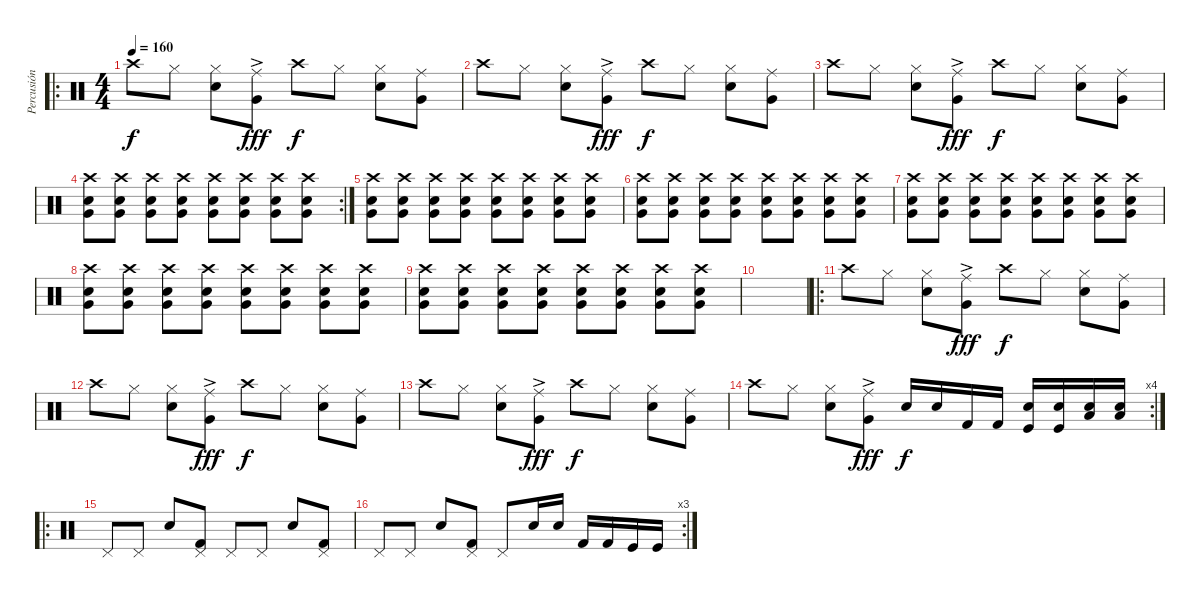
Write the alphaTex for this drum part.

\track ("Percusión" "Percusión") {instrument percussion}
\staff {score}
\articulation defaults
\ro
\ts (4 4)
\tempo 160
\clef neutral
\ks c "Crash high (hit)".8{dy f} "Hi-Hat (closed)".8
("Hi-Hat (closed)" "Snare (hit) 2").8 ("Ride (middle)" "Very Low Tom (hit)"{ac}).8{dy fff} "Crash high (hit)".8{dy f} "Hi-Hat (closed)".8 ("Hi-Hat (closed)" "Snare (hit) 2").8 ("Ride (middle)" "Very Low Tom (hit)").8 |
"Crash high (hit)".8 "Hi-Hat (closed)".8 ("Hi-Hat (closed)" "Snare (hit) 2").8 ("Ride (middle)" "Very Low Tom (hit)"{ac}).8{dy fff} "Crash high (hit)".8{dy f} "Hi-Hat (closed)".8 ("Hi-Hat (closed)" "Snare (hit) 2").8 ("Ride (middle)" "Very Low Tom (hit)").8 |
"Crash high (hit)".8 "Hi-Hat (closed)".8 ("Hi-Hat (closed)" "Snare (hit) 2").8 ("Ride (middle)" "Very Low Tom (hit)"{ac}).8{dy fff} "Crash high (hit)".8{dy f} "Hi-Hat (closed)".8 ("Hi-Hat (closed)" "Snare (hit) 2").8 ("Ride (middle)" "Very Low Tom (hit)").8 |
\rc 2
("Crash high (hit)" "Snare (hit) 2" "Very Low Tom (hit)").8 ("Crash high (hit)" "Snare (hit) 2" "Very Low Tom (hit)").8 ("Crash high (hit)" "Snare (hit) 2" "Very Low Tom (hit)").8 ("Crash high (hit)" "Snare (hit) 2" "Very Low Tom (hit)").8 ("Crash high (hit)" "Snare (hit) 2" "Very Low Tom (hit)").8 ("Crash high (hit)" "Snare (hit) 2" "Very Low Tom (hit)").8 ("Crash high (hit)" "Snare (hit) 2" "Very Low Tom (hit)").8 ("Crash high (hit)" "Snare (hit) 2" "Very Low Tom (hit)").8 |
("Crash high (hit)" "Snare (hit) 2" "Very Low Tom (hit)").8 ("Crash high (hit)" "Snare (hit) 2" "Very Low Tom (hit)").8 ("Crash high (hit)" "Snare (hit) 2" "Very Low Tom (hit)").8 ("Crash high (hit)" "Snare (hit) 2" "Very Low Tom (hit)").8 ("Crash high (hit)" "Snare (hit) 2" "Very Low Tom (hit)").8 ("Crash high (hit)" "Snare (hit) 2" "Very Low Tom (hit)").8 ("Crash high (hit)" "Snare (hit) 2" "Very Low Tom (hit)").8 ("Crash high (hit)" "Snare (hit) 2" "Very Low Tom (hit)").8 |
("Crash high (hit)" "Snare (hit) 2" "Very Low Tom (hit)").8 ("Crash high (hit)" "Snare (hit) 2" "Very Low Tom (hit)").8 ("Crash high (hit)" "Snare (hit) 2" "Very Low Tom (hit)").8 ("Crash high (hit)" "Snare (hit) 2" "Very Low Tom (hit)").8 ("Crash high (hit)" "Snare (hit) 2" "Very Low Tom (hit)").8 ("Crash high (hit)" "Snare (hit) 2" "Very Low Tom (hit)").8 ("Crash high (hit)" "Snare (hit) 2" "Very Low Tom (hit)").8 ("Crash high (hit)" "Snare (hit) 2" "Very Low Tom (hit)").8 |
("Crash high (hit)" "Snare (hit) 2" "Very Low Tom (hit)").8 ("Crash high (hit)" "Snare (hit) 2" "Very Low Tom (hit)").8 ("Crash high (hit)" "Snare (hit) 2" "Very Low Tom (hit)").8 ("Crash high (hit)" "Snare (hit) 2" "Very Low Tom (hit)").8 ("Crash high (hit)" "Snare (hit) 2" "Very Low Tom (hit)").8 ("Crash high (hit)" "Snare (hit) 2" "Very Low Tom (hit)").8 ("Crash high (hit)" "Snare (hit) 2" "Very Low Tom (hit)").8 ("Crash high (hit)" "Snare (hit) 2" "Very Low Tom (hit)").8 |
("Crash high (hit)" "Snare (hit) 2" "Very Low Tom (hit)").8 ("Crash high (hit)" "Snare (hit) 2" "Very Low Tom (hit)").8 ("Crash high (hit)" "Snare (hit) 2" "Very Low Tom (hit)").8 ("Crash high (hit)" "Snare (hit) 2" "Very Low Tom (hit)").8 ("Crash high (hit)" "Snare (hit) 2" "Very Low Tom (hit)").8 ("Crash high (hit)" "Snare (hit) 2" "Very Low Tom (hit)").8 ("Crash high (hit)" "Snare (hit) 2" "Very Low Tom (hit)").8 ("Crash high (hit)" "Snare (hit) 2" "Very Low Tom (hit)").8 |
("Crash high (hit)" "Snare (hit) 2" "Very Low Tom (hit)").8 ("Crash high (hit)" "Snare (hit) 2" "Very Low Tom (hit)").8 ("Crash high (hit)" "Snare (hit) 2" "Very Low Tom (hit)").8 ("Crash high (hit)" "Snare (hit) 2" "Very Low Tom (hit)").8 ("Crash high (hit)" "Snare (hit) 2" "Very Low Tom (hit)").8 ("Crash high (hit)" "Snare (hit) 2" "Very Low Tom (hit)").8 ("Crash high (hit)" "Snare (hit) 2" "Very Low Tom (hit)").8 ("Crash high (hit)" "Snare (hit) 2" "Very Low Tom (hit)").8 |
|
\ro "Crash high (hit)".8 "Hi-Hat (closed)".8
("Hi-Hat (closed)" "Snare (hit) 2").8 ("Ride (middle)" "Very Low Tom (hit)"{ac}).8{dy fff} "Crash high (hit)".8{dy f} "Hi-Hat (closed)".8 ("Hi-Hat (closed)" "Snare (hit) 2").8 ("Ride (middle)" "Very Low Tom (hit)").8 |
"Crash high (hit)".8 "Hi-Hat (closed)".8 ("Hi-Hat (closed)" "Snare (hit) 2").8 ("Ride (middle)" "Very Low Tom (hit)"{ac}).8{dy fff} "Crash high (hit)".8{dy f} "Hi-Hat (closed)".8 ("Hi-Hat (closed)" "Snare (hit) 2").8 ("Ride (middle)" "Very Low Tom (hit)").8 |
"Crash high (hit)".8 "Hi-Hat (closed)".8 ("Hi-Hat (closed)" "Snare (hit) 2").8 ("Ride (middle)" "Very Low Tom (hit)"{ac}).8{dy fff} "Crash high (hit)".8{dy f} "Hi-Hat (closed)".8 ("Hi-Hat (closed)" "Snare (hit) 2").8 ("Ride (middle)" "Very Low Tom (hit)").8 |
\rc 4 "Crash high (hit)".8 "Hi-Hat (closed)".8
("Hi-Hat (closed)" "Snare (hit) 2").8 ("Ride (middle)" "Very Low Tom (hit)"{ac}).8{dy fff} "Snare (hit) 2".16{dy f} "Snare (hit) 2".16 "Kick (hit) 2".16 "Kick (hit) 2".16 ("Kick (hit)" "Snare (hit) 2").16 ("Kick (hit)" "Snare (hit) 2").16 ("Snare (hit) 2" "Low Floor Tom (hit)").16 ("Snare (hit) 2" "Low Floor Tom (hit)").16 |
\ro "Pedal Hi-Hat (hit)".8 "Pedal Hi-Hat (hit)".8 "Snare (hit) 2".8
("Pedal Hi-Hat (hit)" "Kick (hit) 2").8 "Pedal Hi-Hat (hit)".8 "Pedal Hi-Hat (hit)".8 "Snare (hit) 2".8 ("Pedal Hi-Hat (hit)" "Kick (hit) 2").8 |
\rc 3 "Pedal Hi-Hat (hit)".8 "Pedal Hi-Hat (hit)".8 "Snare (hit) 2".8
("Pedal Hi-Hat (hit)" "Kick (hit) 2").8 "Pedal Hi-Hat (hit)".8 "Snare (hit) 2".16 "Snare (hit) 2".16 "Kick (hit) 2".16 "Kick (hit) 2".16 "Kick (hit)".16 "Kick (hit)".16
